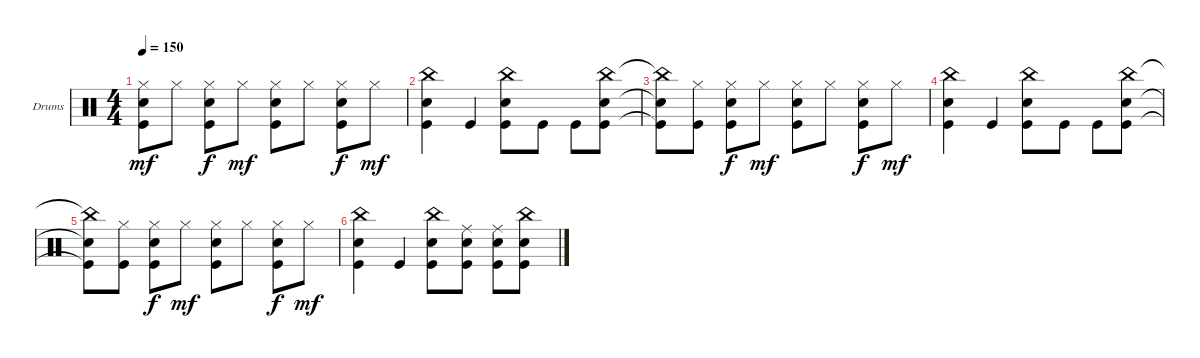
\defaultSystemsLayout 4
\bracketExtendMode groupsimilarinstruments
\firstSystemTrackNameOrientation horizontal
\otherSystemsTrackNameOrientation horizontal
\track ("Drumkit" "Drums") {instrument percussion}
\staff {score}
\articulation defaults
\ts (4 4)
\tempo 150
\clef neutral
\ks c
("Snare (hit) 2" "Kick (hit)" "Hi-Hat (closed)").8{dy mf} "Hi-Hat (closed)".8 ("Kick (hit)" "Snare (hit) 2" "Hi-Hat (closed)").8{dy f} "Hi-Hat (closed)".8{dy mf} ("Kick (hit)" "Snare (hit) 2" "Hi-Hat (closed)").8 "Hi-Hat (closed)".8 ("Kick (hit)" "Snare (hit) 2" "Hi-Hat (closed)").8{dy f} "Hi-Hat (closed)".8{dy mf} |
("Kick (hit)" "Snare (hit) 2" "China (hit)").4 "Kick (hit)".4 ("Kick (hit)" "Snare (hit) 2" "China (hit)").8 "Kick (hit)".8 "Kick (hit)".8 ("Kick (hit)" "Snare (hit) 2" "China (hit)").8 |
("Kick (hit)"{t} "Snare (hit) 2"{t} "China (hit)"{t}).8 ("Hi-Hat (closed)" "Kick (hit)").8 ("Kick (hit)" "Snare (hit) 2" "Hi-Hat (closed)").8{dy f} "Hi-Hat (closed)".8{dy mf} ("Kick (hit)" "Snare (hit) 2" "Hi-Hat (closed)").8 "Hi-Hat (closed)".8 ("Kick (hit)" "Snare (hit) 2" "Hi-Hat (closed)").8{dy f} "Hi-Hat (closed)".8{dy mf} |
("Kick (hit)" "Snare (hit) 2" "China (hit)").4 "Kick (hit)".4 ("Kick (hit)" "Snare (hit) 2" "China (hit)").8 "Kick (hit)".8 "Kick (hit)".8 ("Kick (hit)" "Snare (hit) 2" "China (hit)").8 |
("Kick (hit)"{t} "Snare (hit) 2"{t} "China (hit)"{t}).8 ("Hi-Hat (closed)" "Kick (hit)").8 ("Kick (hit)" "Snare (hit) 2" "Hi-Hat (closed)").8{dy f} "Hi-Hat (closed)".8{dy mf} ("Kick (hit)" "Snare (hit) 2" "Hi-Hat (closed)").8 "Hi-Hat (closed)".8 ("Kick (hit)" "Snare (hit) 2" "Hi-Hat (closed)").8{dy f} "Hi-Hat (closed)".8{dy mf} |
("Kick (hit)" "Snare (hit) 2" "China (hit)").4 "Kick (hit)".4 ("Kick (hit)" "Snare (hit) 2" "China (hit)").8 ("Kick (hit)" "Snare (hit) 2" "Ride (middle)").8 ("Kick (hit)" "Snare (hit) 2" "Ride (middle)").8 ("Kick (hit)" "Snare (hit) 2" "China (hit)").8
